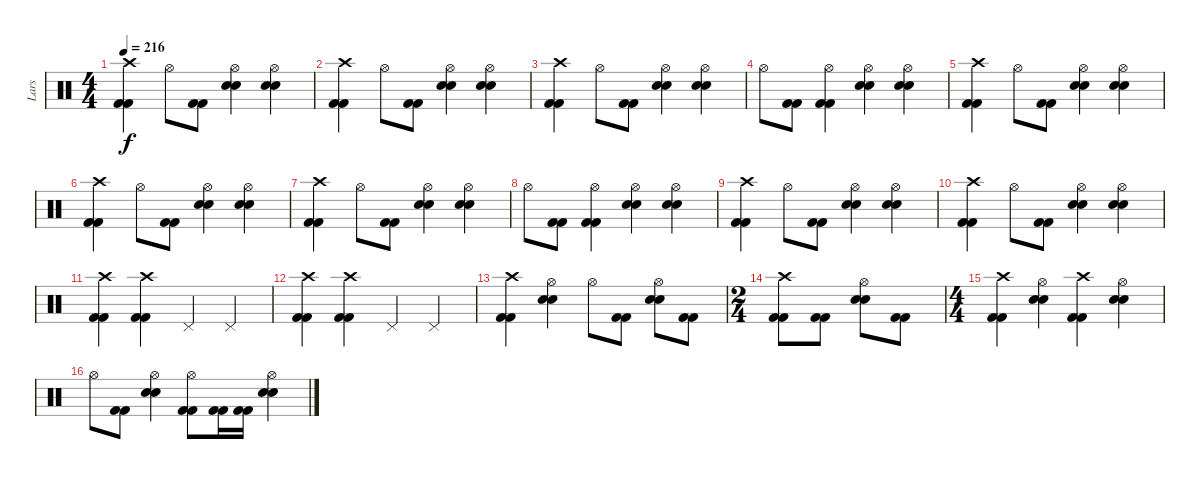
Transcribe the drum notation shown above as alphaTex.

\track ("Lars" "Lars") {instrument percussion}
\staff {score}
\articulation defaults
\ts (4 4)
\tempo 216
\clef neutral
\ks c
("Crash high (hit)" "Kick (hit) 2" "Kick (hit) 2").4{dy f} "Hi-Hat (open)".8 ("Kick (hit) 2" "Kick (hit) 2").8 ("Hi-Hat (open)" "Electric Snare (hit)" "Electric Snare (hit)").4 ("Hi-Hat (open)" "Electric Snare (hit)" "Electric Snare (hit)").4 |
("Crash high (hit)" "Kick (hit) 2" "Kick (hit) 2").4 "Hi-Hat (open)".8 ("Kick (hit) 2" "Kick (hit) 2").8 ("Hi-Hat (open)" "Electric Snare (hit)" "Electric Snare (hit)").4 ("Hi-Hat (open)" "Electric Snare (hit)" "Electric Snare (hit)").4 |
("Crash high (hit)" "Kick (hit) 2" "Kick (hit) 2").4 "Hi-Hat (open)".8 ("Kick (hit) 2" "Kick (hit) 2").8 ("Hi-Hat (open)" "Electric Snare (hit)" "Electric Snare (hit)").4 ("Hi-Hat (open)" "Electric Snare (hit)" "Electric Snare (hit)").4 |
"Hi-Hat (open)".8 ("Kick (hit) 2" "Kick (hit) 2").8 ("Hi-Hat (open)" "Kick (hit) 2" "Kick (hit) 2").4 ("Hi-Hat (open)" "Electric Snare (hit)" "Electric Snare (hit)").4 ("Hi-Hat (open)" "Electric Snare (hit)" "Electric Snare (hit)").4 |
("Crash high (hit)" "Kick (hit) 2" "Kick (hit) 2").4 "Hi-Hat (open)".8 ("Kick (hit) 2" "Kick (hit) 2").8 ("Hi-Hat (open)" "Electric Snare (hit)" "Electric Snare (hit)").4 ("Hi-Hat (open)" "Electric Snare (hit)" "Electric Snare (hit)").4 |
("Crash high (hit)" "Kick (hit) 2" "Kick (hit) 2").4 "Hi-Hat (open)".8 ("Kick (hit) 2" "Kick (hit) 2").8 ("Hi-Hat (open)" "Electric Snare (hit)" "Electric Snare (hit)").4 ("Hi-Hat (open)" "Electric Snare (hit)" "Electric Snare (hit)").4 |
("Crash high (hit)" "Kick (hit) 2" "Kick (hit) 2").4 "Hi-Hat (open)".8 ("Kick (hit) 2" "Kick (hit) 2").8 ("Hi-Hat (open)" "Electric Snare (hit)" "Electric Snare (hit)").4 ("Hi-Hat (open)" "Electric Snare (hit)" "Electric Snare (hit)").4 |
"Hi-Hat (open)".8 ("Kick (hit) 2" "Kick (hit) 2").8 ("Hi-Hat (open)" "Kick (hit) 2" "Kick (hit) 2").4 ("Hi-Hat (open)" "Electric Snare (hit)" "Electric Snare (hit)").4 ("Hi-Hat (open)" "Electric Snare (hit)" "Electric Snare (hit)").4 |
("Crash high (hit)" "Kick (hit) 2" "Kick (hit) 2").4 "Hi-Hat (open)".8 ("Kick (hit) 2" "Kick (hit) 2").8 ("Hi-Hat (open)" "Electric Snare (hit)" "Electric Snare (hit)").4 ("Hi-Hat (open)" "Electric Snare (hit)" "Electric Snare (hit)").4 |
("Crash high (hit)" "Kick (hit) 2" "Kick (hit) 2").4 "Hi-Hat (open)".8 ("Kick (hit) 2" "Kick (hit) 2").8 ("Hi-Hat (open)" "Electric Snare (hit)" "Electric Snare (hit)").4 ("Hi-Hat (open)" "Electric Snare (hit)" "Electric Snare (hit)").4 |
("Crash high (hit)" "Kick (hit) 2" "Kick (hit) 2").4 ("Crash high (hit)" "Kick (hit) 2" "Kick (hit) 2").4 "Pedal Hi-Hat (hit)".4 "Pedal Hi-Hat (hit)".4 |
("Crash high (hit)" "Kick (hit) 2" "Kick (hit) 2").4 ("Crash high (hit)" "Kick (hit) 2" "Kick (hit) 2").4 "Pedal Hi-Hat (hit)".4 "Pedal Hi-Hat (hit)".4 |
("Crash high (hit)" "Kick (hit) 2" "Kick (hit) 2").4 ("Hi-Hat (open)" "Electric Snare (hit)" "Electric Snare (hit)").4 "Hi-Hat (open)".8 ("Kick (hit) 2" "Kick (hit) 2").8 ("Hi-Hat (open)" "Electric Snare (hit)" "Electric Snare (hit)").8 ("Kick (hit) 2" "Kick (hit) 2").8 |
\ts (2 4)
("Crash high (hit)" "Kick (hit) 2" "Kick (hit) 2").8 ("Kick (hit) 2" "Kick (hit) 2").8 ("Hi-Hat (open)" "Electric Snare (hit)" "Electric Snare (hit)").8 ("Kick (hit) 2" "Kick (hit) 2").8 |
\ts (4 4)
("Crash high (hit)" "Kick (hit) 2" "Kick (hit) 2").4 ("Hi-Hat (open)" "Electric Snare (hit)" "Electric Snare (hit)").4 ("Crash high (hit)" "Kick (hit) 2" "Kick (hit) 2").4 ("Hi-Hat (open)" "Electric Snare (hit)" "Electric Snare (hit)").4 |
"Hi-Hat (open)".8 ("Kick (hit) 2" "Kick (hit) 2").8 ("Hi-Hat (open)" "Electric Snare (hit)" "Electric Snare (hit)").4 ("Hi-Hat (open)" "Kick (hit) 2" "Kick (hit) 2").8 ("Kick (hit) 2" "Kick (hit) 2").16 ("Kick (hit) 2" "Kick (hit) 2").16 ("Hi-Hat (open)" "Electric Snare (hit)" "Electric Snare (hit)").4
